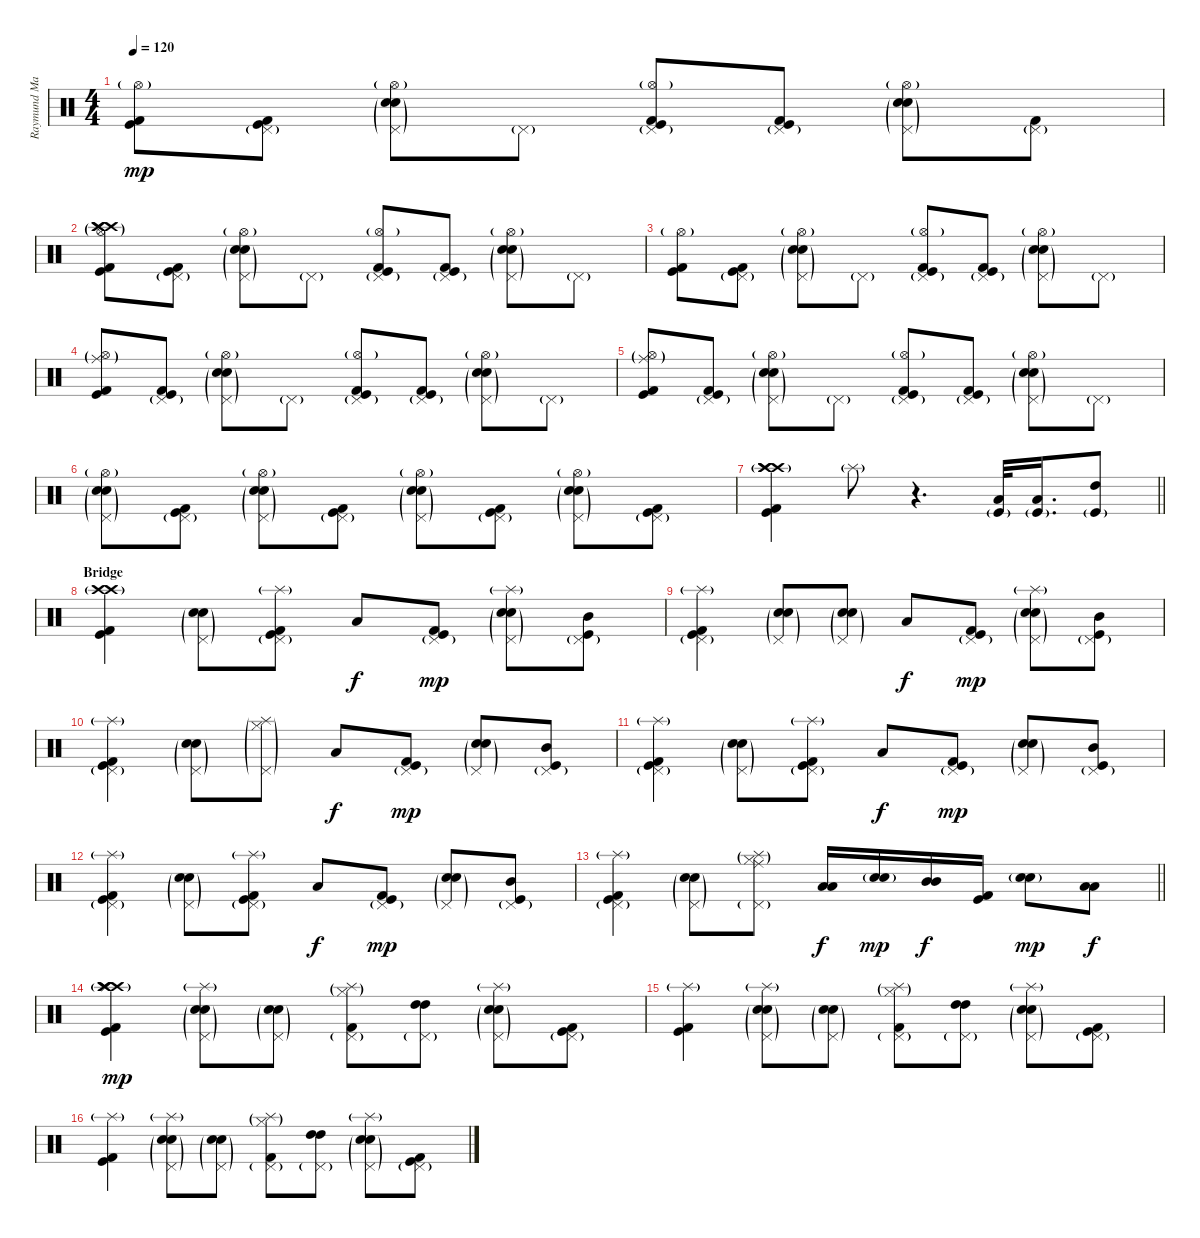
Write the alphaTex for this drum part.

\track ("Raymund Marasigan(Drums)" "Raymund Ma") {instrument percussion}
\staff {score}
\articulation defaults
\ts (4 4)
\tempo 120
\clef neutral
\ks c
("Kick (hit) 2" "Kick (hit)" "Hi-Hat (open)"{g}).8{dy mp} ("Pedal Hi-Hat (hit)"{g} "Kick (hit) 2" "Kick (hit)").8 ("Pedal Hi-Hat (hit)"{g} "Electric Snare (hit)" "Snare (hit) 2"{g} "Hi-Hat (open)"{g}).8 "Pedal Hi-Hat (hit)"{g}.8 ("Pedal Hi-Hat (hit)"{g} "Kick (hit) 2" "Kick (hit)" "Hi-Hat (open)"{g}).8 ("Pedal Hi-Hat (hit)"{g} "Kick (hit) 2" "Kick (hit)").8 ("Pedal Hi-Hat (hit)"{g} "Electric Snare (hit)" "Snare (hit) 2"{g} "Hi-Hat (open)"{g}).8 ("Pedal Hi-Hat (hit)"{g} "Kick (hit) 2").8 |
("Crash high (hit)"{g} "Crash high (hit)"{g} "Crash high (hit)"{g} "Kick (hit) 2" "Kick (hit)" "Hi-Hat (open)"{g}).8 ("Pedal Hi-Hat (hit)"{g} "Kick (hit) 2" "Kick (hit)").8 ("Pedal Hi-Hat (hit)"{g} "Electric Snare (hit)" "Snare (hit) 2"{g} "Hi-Hat (open)"{g}).8 "Pedal Hi-Hat (hit)"{g}.8 ("Pedal Hi-Hat (hit)"{g} "Kick (hit) 2" "Kick (hit)" "Hi-Hat (open)"{g}).8 ("Pedal Hi-Hat (hit)"{g} "Kick (hit) 2" "Kick (hit)").8 ("Pedal Hi-Hat (hit)"{g} "Electric Snare (hit)" "Snare (hit) 2"{g} "Hi-Hat (open)"{g}).8 "Pedal Hi-Hat (hit)"{g}.8 |
("Kick (hit) 2" "Kick (hit)" "Hi-Hat (open)"{g}).8 ("Pedal Hi-Hat (hit)"{g} "Kick (hit) 2" "Kick (hit)").8 ("Pedal Hi-Hat (hit)"{g} "Electric Snare (hit)" "Snare (hit) 2"{g} "Hi-Hat (open)"{g}).8 "Pedal Hi-Hat (hit)"{g}.8 ("Pedal Hi-Hat (hit)"{g} "Kick (hit) 2" "Kick (hit)" "Hi-Hat (open)"{g}).8 ("Pedal Hi-Hat (hit)"{g} "Kick (hit) 2" "Kick (hit)").8 ("Pedal Hi-Hat (hit)"{g} "Electric Snare (hit)" "Snare (hit) 2"{g} "Hi-Hat (open)"{g}).8 "Pedal Hi-Hat (hit)"{g}.8 |
("Ride (middle)"{g} "Kick (hit) 2" "Kick (hit)" "Hi-Hat (open)"{g}).8 ("Pedal Hi-Hat (hit)"{g} "Kick (hit) 2" "Kick (hit)").8 ("Pedal Hi-Hat (hit)"{g} "Electric Snare (hit)" "Snare (hit) 2"{g} "Hi-Hat (open)"{g}).8 "Pedal Hi-Hat (hit)"{g}.8 ("Pedal Hi-Hat (hit)"{g} "Kick (hit) 2" "Kick (hit)" "Hi-Hat (open)"{g}).8 ("Pedal Hi-Hat (hit)"{g} "Kick (hit) 2" "Kick (hit)").8 ("Pedal Hi-Hat (hit)"{g} "Electric Snare (hit)" "Snare (hit) 2"{g} "Hi-Hat (open)"{g}).8 "Pedal Hi-Hat (hit)"{g}.8 |
("Ride (middle)"{g} "Kick (hit) 2" "Kick (hit)" "Hi-Hat (open)"{g}).8 ("Pedal Hi-Hat (hit)"{g} "Kick (hit) 2" "Kick (hit)").8 ("Pedal Hi-Hat (hit)"{g} "Electric Snare (hit)" "Snare (hit) 2"{g} "Hi-Hat (open)"{g}).8 "Pedal Hi-Hat (hit)"{g}.8 ("Pedal Hi-Hat (hit)"{g} "Kick (hit) 2" "Kick (hit)" "Hi-Hat (open)"{g}).8 ("Pedal Hi-Hat (hit)"{g} "Kick (hit) 2" "Kick (hit)").8 ("Pedal Hi-Hat (hit)"{g} "Electric Snare (hit)" "Snare (hit) 2"{g} "Hi-Hat (open)"{g}).8 "Pedal Hi-Hat (hit)"{g}.8 |
("Pedal Hi-Hat (hit)"{g} "Electric Snare (hit)" "Snare (hit) 2"{g} "Hi-Hat (open)"{g}).8 ("Pedal Hi-Hat (hit)"{g} "Kick (hit) 2" "Kick (hit)").8 ("Pedal Hi-Hat (hit)"{g} "Electric Snare (hit)" "Snare (hit) 2"{g} "Hi-Hat (open)"{g}).8 ("Pedal Hi-Hat (hit)"{g} "Kick (hit) 2" "Kick (hit)").8 ("Pedal Hi-Hat (hit)"{g} "Electric Snare (hit)" "Snare (hit) 2"{g} "Hi-Hat (open)"{g}).8 ("Pedal Hi-Hat (hit)"{g} "Kick (hit) 2" "Kick (hit)").8 ("Pedal Hi-Hat (hit)"{g} "Electric Snare (hit)" "Snare (hit) 2"{g} "Hi-Hat (open)"{g}).8 ("Pedal Hi-Hat (hit)"{g} "Kick (hit) 2" "Kick (hit)").8 |
\barLineRight lightlight
("Crash high (hit)"{g} "Crash high (hit)"{g} "Crash high (hit)"{g} "Kick (hit) 2" "Kick (hit)").4 "Splash (hit)"{g}.8 r.4{d} ("Low Tom (hit)" "Kick (hit)"{g}).32 ("Low Tom (hit)" "Kick (hit)"{g}).16{d} ("High Tom (hit)" "Kick (hit)"{g}).8 |
\section ("" "Bridge")
("Crash high (hit)"{g} "Crash high (hit)"{g} "Kick (hit) 2" "Kick (hit)").4 ("Pedal Hi-Hat (hit)"{g} "Electric Snare (hit)" "Snare (hit) 2"{g}).8 ("Pedal Hi-Hat (hit)"{g} "Kick (hit) 2" "Kick (hit)" "Splash (hit)"{g}).8 "Low Tom (hit)".8{dy f} ("Pedal Hi-Hat (hit)"{g} "Kick (hit) 2" "Kick (hit)").8{dy mp} ("Pedal Hi-Hat (hit)"{g} "Electric Snare (hit)" "Snare (hit) 2"{g} "Splash (hit)"{g}).8 ("Pedal Hi-Hat (hit)"{g} "Mid Tom (hit)" "Kick (hit)").8 |
("Pedal Hi-Hat (hit)"{g} "Kick (hit) 2" "Kick (hit)" "Splash (hit)"{g}).4 ("Pedal Hi-Hat (hit)"{g} "Electric Snare (hit)" "Snare (hit) 2"{g}).8 ("Pedal Hi-Hat (hit)"{g} "Electric Snare (hit)" "Snare (hit) 2"{g}).8 "Low Tom (hit)".8{dy f} ("Pedal Hi-Hat (hit)"{g} "Kick (hit) 2" "Kick (hit)").8{dy mp} ("Pedal Hi-Hat (hit)"{g} "Electric Snare (hit)" "Snare (hit) 2"{g} "Splash (hit)"{g}).8 ("Pedal Hi-Hat (hit)"{g} "Mid Tom (hit)" "Kick (hit)").8 |
("Pedal Hi-Hat (hit)"{g} "Kick (hit) 2" "Kick (hit)" "Splash (hit)"{g}).4 ("Pedal Hi-Hat (hit)"{g} "Electric Snare (hit)" "Snare (hit) 2"{g}).8 ("Pedal Hi-Hat (hit)"{g} "Hi-Hat (closed)"{g} "Splash (hit)"{g}).8 "Low Tom (hit)".8{dy f} ("Pedal Hi-Hat (hit)"{g} "Kick (hit) 2" "Kick (hit)").8{dy mp} ("Pedal Hi-Hat (hit)"{g} "Electric Snare (hit)" "Snare (hit) 2"{g}).8 ("Pedal Hi-Hat (hit)"{g} "Mid Tom (hit)" "Kick (hit)").8 |
("Pedal Hi-Hat (hit)"{g} "Splash (hit)"{g} "Kick (hit) 2" "Kick (hit)").4 ("Pedal Hi-Hat (hit)"{g} "Electric Snare (hit)" "Snare (hit) 2"{g}).8 ("Pedal Hi-Hat (hit)"{g} "Kick (hit) 2" "Kick (hit)" "Splash (hit)"{g}).8 "Low Tom (hit)".8{dy f} ("Pedal Hi-Hat (hit)"{g} "Kick (hit) 2" "Kick (hit)").8{dy mp} ("Pedal Hi-Hat (hit)"{g} "Electric Snare (hit)" "Snare (hit) 2"{g}).8 ("Pedal Hi-Hat (hit)"{g} "Mid Tom (hit)" "Kick (hit)").8 |
("Pedal Hi-Hat (hit)"{g} "Splash (hit)"{g} "Kick (hit) 2" "Kick (hit)").4 ("Pedal Hi-Hat (hit)"{g} "Electric Snare (hit)" "Snare (hit) 2"{g}).8 ("Pedal Hi-Hat (hit)"{g} "Kick (hit) 2" "Kick (hit)" "Splash (hit)"{g}).8 "Low Tom (hit)".8{dy f} ("Pedal Hi-Hat (hit)"{g} "Kick (hit) 2" "Kick (hit)").8{dy mp} ("Pedal Hi-Hat (hit)"{g} "Electric Snare (hit)" "Snare (hit) 2"{g}).8 ("Pedal Hi-Hat (hit)"{g} "Mid Tom (hit)" "Kick (hit)").8 |
\barLineRight lightlight
("Pedal Hi-Hat (hit)"{g} "Splash (hit)"{g} "Kick (hit) 2" "Kick (hit)").4 ("Pedal Hi-Hat (hit)"{g} "Electric Snare (hit)" "Snare (hit) 2"{g}).8 ("Pedal Hi-Hat (hit)"{g} "Hi-Hat (closed)"{g} "Ride (middle)" "Splash (hit)"{g}).8 ("Low Tom (hit)" "Low Tom (hit)").16{dy f} ("Electric Snare (hit)" "Snare (hit) 2"{g}).16{dy mp} ("Mid Tom (hit)" "Mid Tom (hit)").16{dy f} ("Kick (hit) 2" "Kick (hit)").16 ("Electric Snare (hit)" "Snare (hit) 2"{g}).8{dy mp} ("Low Tom (hit)" "Low Tom (hit)").8{dy f} |
\section ("" "")
("Crash high (hit)"{g} "Crash high (hit)"{g} "Crash high (hit)"{g} "Kick (hit) 2" "Kick (hit)" "Splash (hit)"{g}).4{dy mp} ("Pedal Hi-Hat (hit)"{g} "Electric Snare (hit)" "Snare (hit) 2"{g} "Splash (hit)"{g}).8 ("Pedal Hi-Hat (hit)"{g} "Electric Snare (hit)" "Snare (hit) 2"{g}).8 ("Pedal Hi-Hat (hit)"{g} "Hi-Hat (closed)"{g} "Kick (hit) 2" "Splash (hit)"{g}).8 ("Pedal Hi-Hat (hit)"{g} "High Tom (hit)" "High Tom (hit)").8 ("Pedal Hi-Hat (hit)"{g} "Electric Snare (hit)" "Snare (hit) 2"{g} "Splash (hit)"{g}).8 ("Pedal Hi-Hat (hit)"{g} "Kick (hit) 2" "Kick (hit)").8 |
("Kick (hit) 2" "Kick (hit)" "Splash (hit)"{g}).4 ("Pedal Hi-Hat (hit)"{g} "Electric Snare (hit)" "Snare (hit) 2"{g} "Splash (hit)"{g}).8 ("Pedal Hi-Hat (hit)"{g} "Electric Snare (hit)" "Snare (hit) 2"{g}).8 ("Pedal Hi-Hat (hit)"{g} "Hi-Hat (closed)"{g} "Kick (hit) 2" "Splash (hit)"{g}).8 ("Pedal Hi-Hat (hit)"{g} "High Tom (hit)" "High Tom (hit)").8 ("Pedal Hi-Hat (hit)"{g} "Electric Snare (hit)" "Snare (hit) 2"{g} "Splash (hit)"{g}).8 ("Pedal Hi-Hat (hit)"{g} "Kick (hit) 2" "Kick (hit)").8 |
("Kick (hit) 2" "Kick (hit)" "Splash (hit)"{g}).4 ("Pedal Hi-Hat (hit)"{g} "Electric Snare (hit)" "Snare (hit) 2"{g} "Splash (hit)"{g}).8 ("Pedal Hi-Hat (hit)"{g} "Electric Snare (hit)" "Snare (hit) 2"{g}).8 ("Pedal Hi-Hat (hit)"{g} "Hi-Hat (closed)"{g} "Kick (hit) 2" "Splash (hit)"{g}).8 ("Pedal Hi-Hat (hit)"{g} "High Tom (hit)" "High Tom (hit)").8 ("Pedal Hi-Hat (hit)"{g} "Electric Snare (hit)" "Snare (hit) 2"{g} "Splash (hit)"{g}).8 ("Pedal Hi-Hat (hit)"{g} "Kick (hit) 2" "Kick (hit)").8
